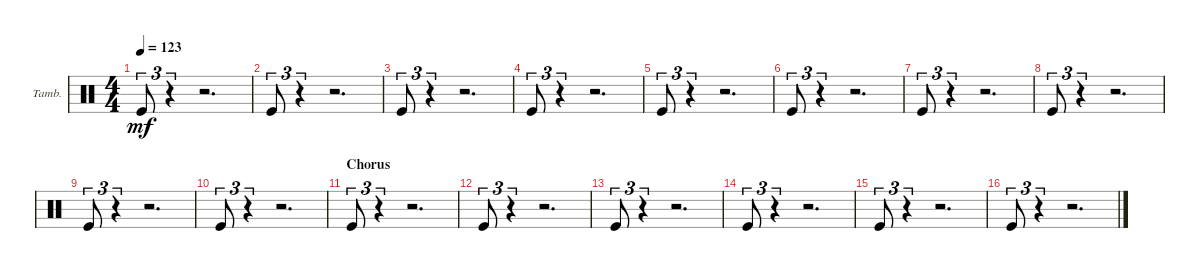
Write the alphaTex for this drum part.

\defaultSystemsLayout 4
\bracketExtendMode groupsimilarinstruments
\firstSystemTrackNameOrientation horizontal
\otherSystemsTrackNameOrientation horizontal
\track ("Tambourine" "Tamb.") {multiBarRest instrument percussion}
\staff {score}
\articulation defaults
\ts (4 4)
\tempo 123
\clef neutral
\ks c "Kick (hit)".8{tu (3 2) dy mf}
r.4{tu (3 2)} r.2{d} |
"Kick (hit)".8{tu (3 2)} r.4{tu (3 2)} r.2{d} |
"Kick (hit)".8{tu (3 2)} r.4{tu (3 2)} r.2{d} |
"Kick (hit)".8{tu (3 2)} r.4{tu (3 2)} r.2{d} |
"Kick (hit)".8{tu (3 2)} r.4{tu (3 2)} r.2{d} |
"Kick (hit)".8{tu (3 2)} r.4{tu (3 2)} r.2{d} |
"Kick (hit)".8{tu (3 2)} r.4{tu (3 2)} r.2{d} |
"Kick (hit)".8{tu (3 2)} r.4{tu (3 2)} r.2{d} |
"Kick (hit)".8{tu (3 2)} r.4{tu (3 2)} r.2{d} |
"Kick (hit)".8{tu (3 2)} r.4{tu (3 2)} r.2{d} |
\section ("" "Chorus")
"Kick (hit)".8{tu (3 2)} r.4{tu (3 2)} r.2{d} |
"Kick (hit)".8{tu (3 2)} r.4{tu (3 2)} r.2{d} |
"Kick (hit)".8{tu (3 2)} r.4{tu (3 2)} r.2{d} |
"Kick (hit)".8{tu (3 2)} r.4{tu (3 2)} r.2{d} |
"Kick (hit)".8{tu (3 2)} r.4{tu (3 2)} r.2{d} |
"Kick (hit)".8{tu (3 2)} r.4{tu (3 2)} r.2{d}
